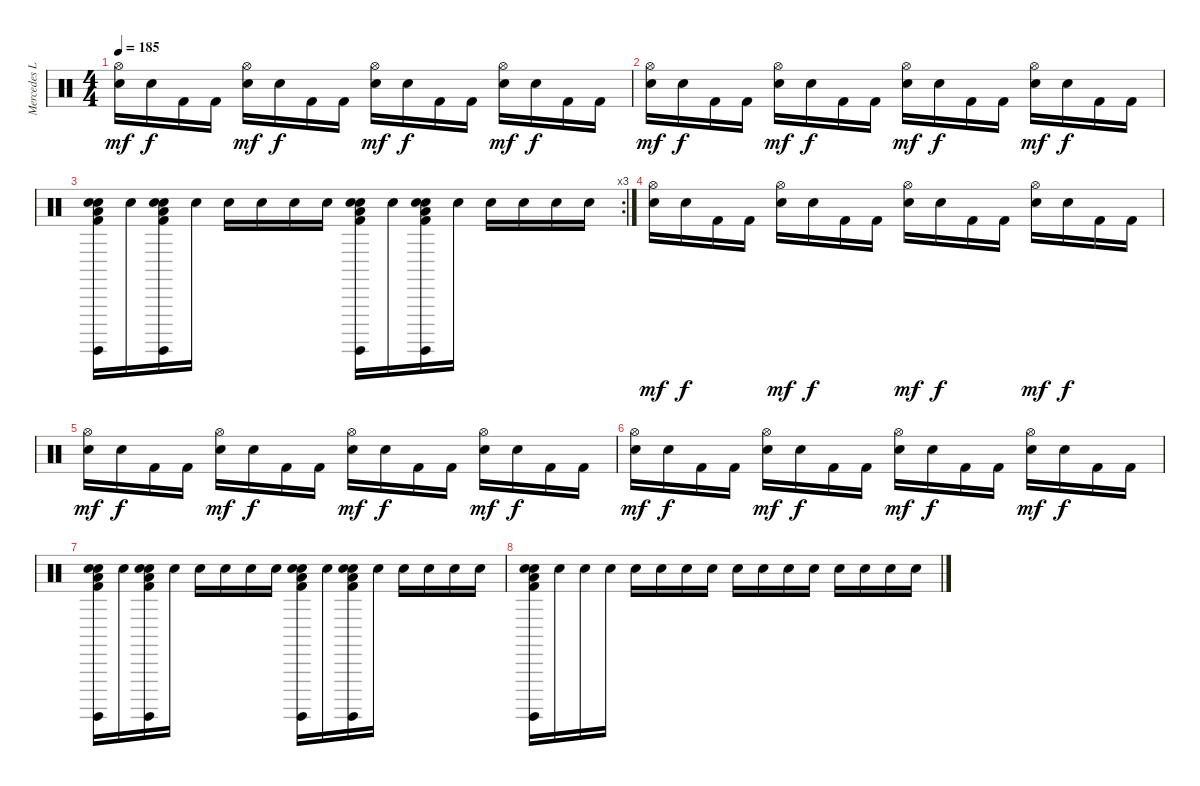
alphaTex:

\track ("Mercedes Lander - Drums" "Mercedes L") {instrument percussion}
\staff {score}
\articulation defaults
\ts (4 4)
\tempo 185
\clef neutral
\ks c
("Hi-Hat (open)" "Electric Snare (hit)").16{dy mf} "Snare (hit)".16{dy f} "Kick (hit) 2".16 "Kick (hit) 2".16 ("Hi-Hat (open)" "Electric Snare (hit)").16{dy mf} "Snare (hit)".16{dy f} "Kick (hit) 2".16 "Kick (hit) 2".16 ("Hi-Hat (open)" "Electric Snare (hit)").16{dy mf} "Snare (hit)".16{dy f} "Kick (hit) 2".16 "Kick (hit) 2".16 ("Hi-Hat (open)" "Electric Snare (hit)").16{dy mf} "Snare (hit)".16{dy f} "Kick (hit) 2".16 "Kick (hit) 2".16 |
("Hi-Hat (open)" "Electric Snare (hit)").16{dy mf} "Snare (hit)".16{dy f} "Kick (hit) 2".16 "Kick (hit) 2".16 ("Hi-Hat (open)" "Electric Snare (hit)").16{dy mf} "Snare (hit)".16{dy f} "Kick (hit) 2".16 "Kick (hit) 2".16 ("Hi-Hat (open)" "Electric Snare (hit)").16{dy mf} "Snare (hit)".16{dy f} "Kick (hit) 2".16 "Kick (hit) 2".16 ("Hi-Hat (open)" "Electric Snare (hit)").16{dy mf} "Snare (hit)".16{dy f} "Kick (hit) 2".16 "Kick (hit) 2".16 |
\rc 3
("Surdo (hit)" "Low Floor Tom (hit)" "Electric Snare (hit)" "Snare (hit) 2" "Kick (hit) 2").16 "Snare (hit)".16 ("Surdo (hit)" "Low Floor Tom (hit)" "Electric Snare (hit)" "Snare (hit) 2" "Kick (hit) 2").16 "Snare (hit)".16 "Snare (hit)".16 "Snare (hit)".16 "Snare (hit)".16 "Snare (hit)".16 ("Surdo (hit)" "Low Floor Tom (hit)" "Electric Snare (hit)" "Snare (hit) 2" "Kick (hit) 2").16 "Snare (hit)".16 ("Surdo (hit)" "Low Floor Tom (hit)" "Electric Snare (hit)" "Snare (hit) 2" "Kick (hit) 2").16 "Snare (hit)".16 "Snare (hit)".16 "Snare (hit)".16 "Snare (hit)".16 "Snare (hit)".16 |
("Hi-Hat (open)" "Electric Snare (hit)").16{dy mf} "Snare (hit)".16{dy f} "Kick (hit) 2".16 "Kick (hit) 2".16 ("Hi-Hat (open)" "Electric Snare (hit)").16{dy mf} "Snare (hit)".16{dy f} "Kick (hit) 2".16 "Kick (hit) 2".16 ("Hi-Hat (open)" "Electric Snare (hit)").16{dy mf} "Snare (hit)".16{dy f} "Kick (hit) 2".16 "Kick (hit) 2".16 ("Hi-Hat (open)" "Electric Snare (hit)").16{dy mf} "Snare (hit)".16{dy f} "Kick (hit) 2".16 "Kick (hit) 2".16 |
("Hi-Hat (open)" "Electric Snare (hit)").16{dy mf} "Snare (hit)".16{dy f} "Kick (hit) 2".16 "Kick (hit) 2".16 ("Hi-Hat (open)" "Electric Snare (hit)").16{dy mf} "Snare (hit)".16{dy f} "Kick (hit) 2".16 "Kick (hit) 2".16 ("Hi-Hat (open)" "Electric Snare (hit)").16{dy mf} "Snare (hit)".16{dy f} "Kick (hit) 2".16 "Kick (hit) 2".16 ("Hi-Hat (open)" "Electric Snare (hit)").16{dy mf} "Snare (hit)".16{dy f} "Kick (hit) 2".16 "Kick (hit) 2".16 |
("Hi-Hat (open)" "Electric Snare (hit)").16{dy mf} "Snare (hit)".16{dy f} "Kick (hit) 2".16 "Kick (hit) 2".16 ("Hi-Hat (open)" "Electric Snare (hit)").16{dy mf} "Snare (hit)".16{dy f} "Kick (hit) 2".16 "Kick (hit) 2".16 ("Hi-Hat (open)" "Electric Snare (hit)").16{dy mf} "Snare (hit)".16{dy f} "Kick (hit) 2".16 "Kick (hit) 2".16 ("Hi-Hat (open)" "Electric Snare (hit)").16{dy mf} "Snare (hit)".16{dy f} "Kick (hit) 2".16 "Kick (hit) 2".16 |
("Surdo (hit)" "Low Floor Tom (hit)" "Electric Snare (hit)" "Snare (hit) 2" "Kick (hit) 2").16 "Snare (hit)".16 ("Surdo (hit)" "Low Floor Tom (hit)" "Electric Snare (hit)" "Snare (hit) 2" "Kick (hit) 2").16 "Snare (hit)".16 "Snare (hit)".16 "Snare (hit)".16 "Snare (hit)".16 "Snare (hit)".16 ("Surdo (hit)" "Low Floor Tom (hit)" "Electric Snare (hit)" "Snare (hit) 2" "Kick (hit) 2").16 "Snare (hit)".16 ("Surdo (hit)" "Low Floor Tom (hit)" "Electric Snare (hit)" "Snare (hit) 2" "Kick (hit) 2").16 "Snare (hit)".16 "Snare (hit)".16 "Snare (hit)".16 "Snare (hit)".16 "Snare (hit)".16 |
("Surdo (hit)" "Low Floor Tom (hit)" "Electric Snare (hit)" "Snare (hit) 2" "Kick (hit) 2").16 "Snare (hit)".16 "Snare (hit)".16 "Snare (hit)".16 "Snare (hit)".16 "Snare (hit)".16 "Snare (hit)".16 "Snare (hit)".16 "Snare (hit)".16 "Snare (hit)".16 "Snare (hit)".16 "Snare (hit)".16 "Snare (hit)".16 "Snare (hit)".16 "Snare (hit)".16 "Snare (hit)".16
